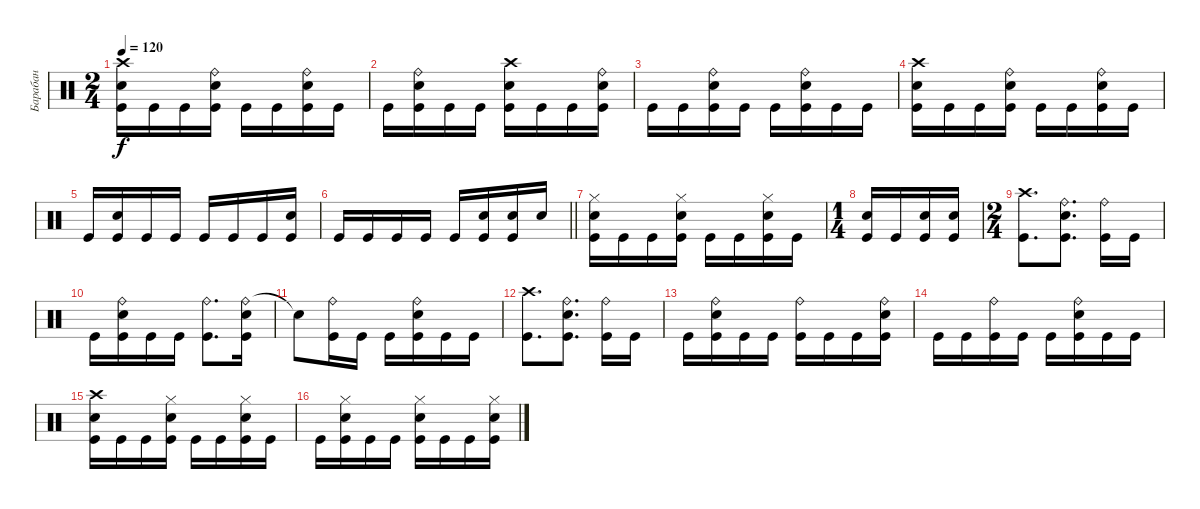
\track ("Барабан" "Барабан") {instrument percussion}
\staff {score}
\articulation defaults
\ts (2 4)
\tempo 120
\clef neutral
\ks c
("Crash high (hit)" "Electric Snare (hit)" "Kick (hit)").16{dy f} "Kick (hit)".16 "Kick (hit)".16 ("Ride (bell)" "Electric Snare (hit)" "Kick (hit)").16 "Kick (hit)".16 "Kick (hit)".16 ("Ride (bell)" "Electric Snare (hit)" "Kick (hit)").16 "Kick (hit)".16 |
"Kick (hit)".16 ("Ride (bell)" "Electric Snare (hit)" "Kick (hit)").16 "Kick (hit)".16 "Kick (hit)".16 ("Crash high (hit)" "Electric Snare (hit)" "Kick (hit)").16 "Kick (hit)".16 "Kick (hit)".16 ("Ride (bell)" "Electric Snare (hit)" "Kick (hit)").16 |
"Kick (hit)".16 "Kick (hit)".16 ("Ride (bell)" "Electric Snare (hit)" "Kick (hit)").16 "Kick (hit)".16 "Kick (hit)".16 ("Ride (bell)" "Electric Snare (hit)" "Kick (hit)").16 "Kick (hit)".16 "Kick (hit)".16 |
("Crash high (hit)" "Electric Snare (hit)" "Kick (hit)").16 "Kick (hit)".16 "Kick (hit)".16 ("Ride (bell)" "Electric Snare (hit)" "Kick (hit)").16 "Kick (hit)".16 "Kick (hit)".16 ("Ride (bell)" "Electric Snare (hit)" "Kick (hit)").16 "Kick (hit)".16 |
"Kick (hit)".16 ("Electric Snare (hit)" "Kick (hit)").16 "Kick (hit)".16 "Kick (hit)".16 "Kick (hit)".16 "Kick (hit)".16 "Kick (hit)".16 ("Electric Snare (hit)" "Kick (hit)").16 |
\barLineRight lightlight "Kick (hit)".16 "Kick (hit)".16 "Kick (hit)".16 "Kick (hit)".16 "Kick (hit)".16
("Electric Snare (hit)" "Kick (hit)").16 ("Electric Snare (hit)" "Kick (hit)").16 "Electric Snare (hit)".16 |
("Hi-Hat (closed)" "Electric Snare (hit)" "Kick (hit)").16 "Kick (hit)".16 "Kick (hit)".16 ("Hi-Hat (closed)" "Electric Snare (hit)" "Kick (hit)").16 "Kick (hit)".16 "Kick (hit)".16 ("Hi-Hat (closed)" "Electric Snare (hit)" "Kick (hit)").16 "Kick (hit)".16 |
\ts (1 4)
("Electric Snare (hit)" "Kick (hit)").16 "Kick (hit)".16 ("Electric Snare (hit)" "Kick (hit)").16 ("Electric Snare (hit)" "Kick (hit)").16 |
\ts (2 4)
("Crash high (hit)" "Kick (hit)").8{d} ("Ride (bell)" "Electric Snare (hit)" "Kick (hit)").8{d} ("Ride (bell)" "Kick (hit)").16 "Kick (hit)".16 |
"Kick (hit)".16 ("Ride (bell)" "Electric Snare (hit)" "Kick (hit)").16 "Kick (hit)".16 "Kick (hit)".16 ("Ride (bell)" "Kick (hit)").8{d} ("Ride (bell)" "Electric Snare (hit)" "Kick (hit)").16 |
"Snare (hit)"{t}.8 ("Ride (bell)" "Kick (hit)").16 "Kick (hit)".16 "Kick (hit)".16 ("Ride (bell)" "Electric Snare (hit)" "Kick (hit)").16 "Kick (hit)".16 "Kick (hit)".16 |
("Crash high (hit)" "Kick (hit)").8{d} ("Ride (bell)" "Electric Snare (hit)" "Kick (hit)").8{d} ("Ride (bell)" "Kick (hit)").16 "Kick (hit)".16 |
"Kick (hit)".16 ("Ride (bell)" "Electric Snare (hit)" "Kick (hit)").16 "Kick (hit)".16 "Kick (hit)".16 ("Ride (bell)" "Kick (hit)").16 "Kick (hit)".16 "Kick (hit)".16 ("Ride (bell)" "Electric Snare (hit)" "Kick (hit)").16 |
"Kick (hit)".16 "Kick (hit)".16 ("Ride (bell)" "Kick (hit)").16 "Kick (hit)".16 "Kick (hit)".16 ("Ride (bell)" "Electric Snare (hit)" "Kick (hit)").16 "Kick (hit)".16 "Kick (hit)".16 |
("Crash high (hit)" "Electric Snare (hit)" "Kick (hit)").16 "Kick (hit)".16 "Kick (hit)".16 ("Hi-Hat (closed)" "Electric Snare (hit)" "Kick (hit)").16 "Kick (hit)".16 "Kick (hit)".16 ("Hi-Hat (closed)" "Electric Snare (hit)" "Kick (hit)").16 "Kick (hit)".16 |
"Kick (hit)".16 ("Hi-Hat (closed)" "Electric Snare (hit)" "Kick (hit)").16 "Kick (hit)".16 "Kick (hit)".16 ("Hi-Hat (closed)" "Electric Snare (hit)" "Kick (hit)").16 "Kick (hit)".16 "Kick (hit)".16 ("Hi-Hat (closed)" "Electric Snare (hit)" "Kick (hit)").16
